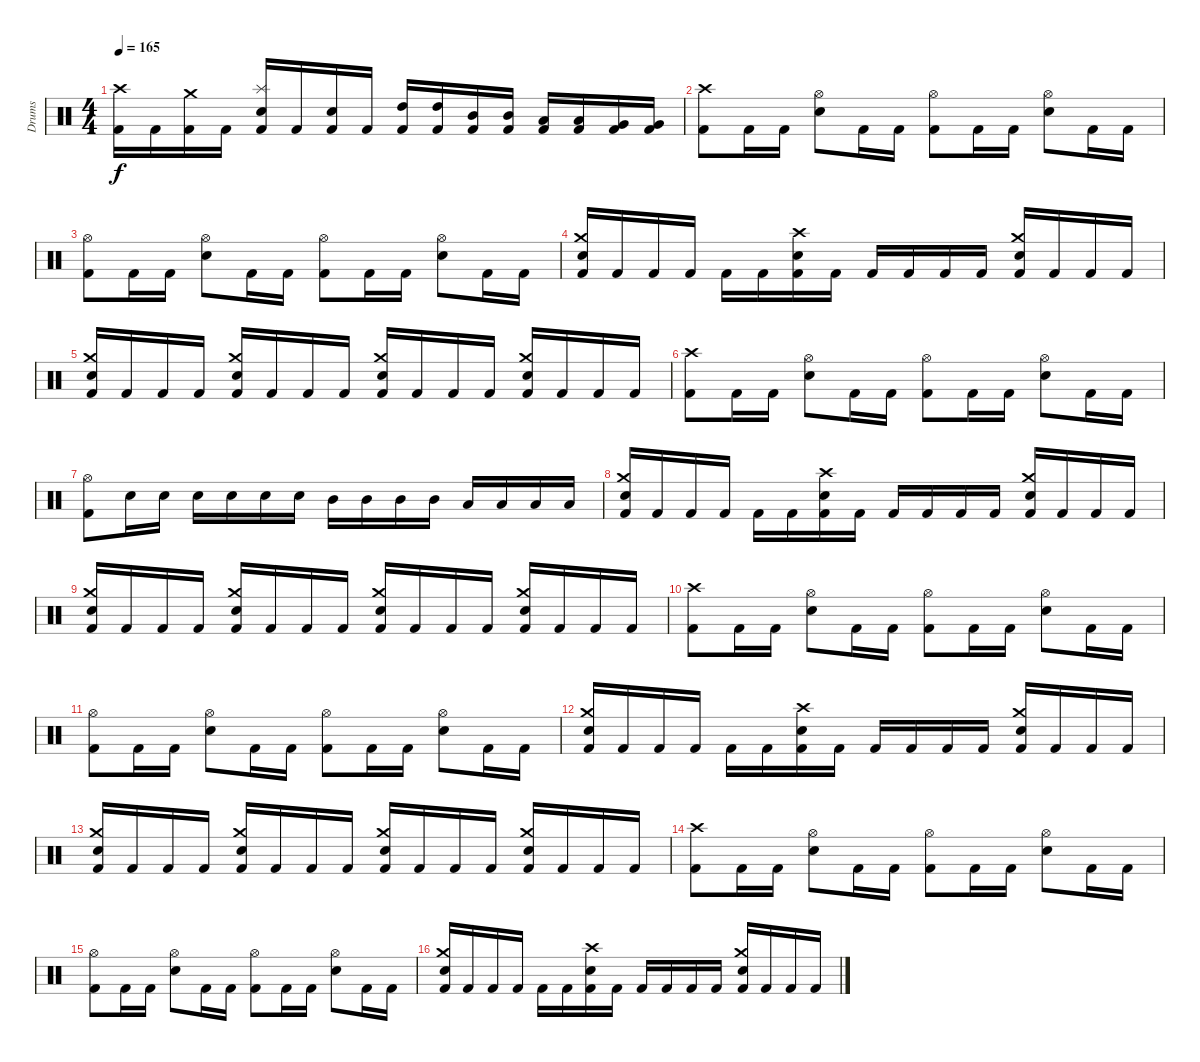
\track ("Drums" "Drums") {instrument percussion}
\staff {score}
\articulation defaults
\ts (4 4)
\tempo 165
\clef neutral
\ks c
("Crash high (hit)" "Kick (hit) 2").16{dy f} "Kick (hit) 2".16 ("Crash medium (hit)" "Kick (hit) 2").16 "Kick (hit) 2".16 ("Splash (hit)" "Electric Snare (hit)" "Kick (hit) 2").16 "Kick (hit) 2".16 ("Electric Snare (hit)" "Kick (hit) 2").16 "Kick (hit) 2".16 ("High Tom (hit)" "Kick (hit) 2").16 ("High Tom (hit)" "Kick (hit) 2").16 ("Mid Tom (hit)" "Kick (hit) 2").16 ("Mid Tom (hit)" "Kick (hit) 2").16 ("Low Tom (hit)" "Kick (hit) 2").16 ("Low Tom (hit)" "Kick (hit) 2").16 ("Very Low Tom (hit)" "Kick (hit) 2").16 ("Very Low Tom (hit)" "Kick (hit) 2").16 |
("Crash high (hit)" "Kick (hit) 2").8 "Kick (hit) 2".16 "Kick (hit) 2".16 ("Hi-Hat (open)" "Electric Snare (hit)").8 "Kick (hit) 2".16 "Kick (hit) 2".16 ("Hi-Hat (open)" "Kick (hit) 2").8 "Kick (hit) 2".16 "Kick (hit) 2".16 ("Hi-Hat (open)" "Electric Snare (hit)").8 "Kick (hit) 2".16 "Kick (hit) 2".16 |
("Hi-Hat (open)" "Kick (hit) 2").8 "Kick (hit) 2".16 "Kick (hit) 2".16 ("Hi-Hat (open)" "Electric Snare (hit)").8 "Kick (hit) 2".16 "Kick (hit) 2".16 ("Hi-Hat (open)" "Kick (hit) 2").8 "Kick (hit) 2".16 "Kick (hit) 2".16 ("Hi-Hat (open)" "Electric Snare (hit)").8 "Kick (hit) 2".16 "Kick (hit) 2".16 |
("Crash medium (hit)" "Electric Snare (hit)" "Kick (hit) 2").16 "Kick (hit) 2".16 "Kick (hit) 2".16 "Kick (hit) 2".16 "Kick (hit) 2".16 "Kick (hit) 2".16 ("Crash high (hit)" "Electric Snare (hit)" "Kick (hit) 2").16 "Kick (hit) 2".16 "Kick (hit) 2".16 "Kick (hit) 2".16 "Kick (hit) 2".16 "Kick (hit) 2".16 ("Crash medium (hit)" "Electric Snare (hit)" "Kick (hit) 2").16 "Kick (hit) 2".16 "Kick (hit) 2".16 "Kick (hit) 2".16 |
("Crash medium (hit)" "Electric Snare (hit)" "Kick (hit) 2").16 "Kick (hit) 2".16 "Kick (hit) 2".16 "Kick (hit) 2".16 ("Crash medium (hit)" "Electric Snare (hit)" "Kick (hit) 2").16 "Kick (hit) 2".16 "Kick (hit) 2".16 "Kick (hit) 2".16 ("Crash medium (hit)" "Electric Snare (hit)" "Kick (hit) 2").16 "Kick (hit) 2".16 "Kick (hit) 2".16 "Kick (hit) 2".16 ("Crash medium (hit)" "Electric Snare (hit)" "Kick (hit) 2").16 "Kick (hit) 2".16 "Kick (hit) 2".16 "Kick (hit) 2".16 |
("Crash high (hit)" "Kick (hit) 2").8 "Kick (hit) 2".16 "Kick (hit) 2".16 ("Hi-Hat (open)" "Electric Snare (hit)").8 "Kick (hit) 2".16 "Kick (hit) 2".16 ("Hi-Hat (open)" "Kick (hit) 2").8 "Kick (hit) 2".16 "Kick (hit) 2".16 ("Hi-Hat (open)" "Electric Snare (hit)").8 "Kick (hit) 2".16 "Kick (hit) 2".16 |
("Hi-Hat (open)" "Kick (hit) 2").8 "Electric Snare (hit)".16 "Electric Snare (hit)".16 "Electric Snare (hit)".16 "Electric Snare (hit)".16 "Electric Snare (hit)".16 "Electric Snare (hit)".16 "Mid Tom (hit)".16 "Mid Tom (hit)".16 "Mid Tom (hit)".16 "Mid Tom (hit)".16 "Low Tom (hit)".16 "Low Tom (hit)".16 "Low Tom (hit)".16 "Low Tom (hit)".16 |
("Crash medium (hit)" "Electric Snare (hit)" "Kick (hit) 2").16 "Kick (hit) 2".16 "Kick (hit) 2".16 "Kick (hit) 2".16 "Kick (hit) 2".16 "Kick (hit) 2".16 ("Crash high (hit)" "Electric Snare (hit)" "Kick (hit) 2").16 "Kick (hit) 2".16 "Kick (hit) 2".16 "Kick (hit) 2".16 "Kick (hit) 2".16 "Kick (hit) 2".16 ("Crash medium (hit)" "Electric Snare (hit)" "Kick (hit) 2").16 "Kick (hit) 2".16 "Kick (hit) 2".16 "Kick (hit) 2".16 |
("Crash medium (hit)" "Electric Snare (hit)" "Kick (hit) 2").16 "Kick (hit) 2".16 "Kick (hit) 2".16 "Kick (hit) 2".16 ("Crash medium (hit)" "Electric Snare (hit)" "Kick (hit) 2").16 "Kick (hit) 2".16 "Kick (hit) 2".16 "Kick (hit) 2".16 ("Crash medium (hit)" "Electric Snare (hit)" "Kick (hit) 2").16 "Kick (hit) 2".16 "Kick (hit) 2".16 "Kick (hit) 2".16 ("Crash medium (hit)" "Electric Snare (hit)" "Kick (hit) 2").16 "Kick (hit) 2".16 "Kick (hit) 2".16 "Kick (hit) 2".16 |
("Crash high (hit)" "Kick (hit) 2").8 "Kick (hit) 2".16 "Kick (hit) 2".16 ("Hi-Hat (open)" "Electric Snare (hit)").8 "Kick (hit) 2".16 "Kick (hit) 2".16 ("Hi-Hat (open)" "Kick (hit) 2").8 "Kick (hit) 2".16 "Kick (hit) 2".16 ("Hi-Hat (open)" "Electric Snare (hit)").8 "Kick (hit) 2".16 "Kick (hit) 2".16 |
("Hi-Hat (open)" "Kick (hit) 2").8 "Kick (hit) 2".16 "Kick (hit) 2".16 ("Hi-Hat (open)" "Electric Snare (hit)").8 "Kick (hit) 2".16 "Kick (hit) 2".16 ("Hi-Hat (open)" "Kick (hit) 2").8 "Kick (hit) 2".16 "Kick (hit) 2".16 ("Hi-Hat (open)" "Electric Snare (hit)").8 "Kick (hit) 2".16 "Kick (hit) 2".16 |
("Crash medium (hit)" "Electric Snare (hit)" "Kick (hit) 2").16 "Kick (hit) 2".16 "Kick (hit) 2".16 "Kick (hit) 2".16 "Kick (hit) 2".16 "Kick (hit) 2".16 ("Crash high (hit)" "Electric Snare (hit)" "Kick (hit) 2").16 "Kick (hit) 2".16 "Kick (hit) 2".16 "Kick (hit) 2".16 "Kick (hit) 2".16 "Kick (hit) 2".16 ("Crash medium (hit)" "Electric Snare (hit)" "Kick (hit) 2").16 "Kick (hit) 2".16 "Kick (hit) 2".16 "Kick (hit) 2".16 |
("Crash medium (hit)" "Electric Snare (hit)" "Kick (hit) 2").16 "Kick (hit) 2".16 "Kick (hit) 2".16 "Kick (hit) 2".16 ("Crash medium (hit)" "Electric Snare (hit)" "Kick (hit) 2").16 "Kick (hit) 2".16 "Kick (hit) 2".16 "Kick (hit) 2".16 ("Crash medium (hit)" "Electric Snare (hit)" "Kick (hit) 2").16 "Kick (hit) 2".16 "Kick (hit) 2".16 "Kick (hit) 2".16 ("Crash medium (hit)" "Electric Snare (hit)" "Kick (hit) 2").16 "Kick (hit) 2".16 "Kick (hit) 2".16 "Kick (hit) 2".16 |
("Crash high (hit)" "Kick (hit) 2").8 "Kick (hit) 2".16 "Kick (hit) 2".16 ("Hi-Hat (open)" "Electric Snare (hit)").8 "Kick (hit) 2".16 "Kick (hit) 2".16 ("Hi-Hat (open)" "Kick (hit) 2").8 "Kick (hit) 2".16 "Kick (hit) 2".16 ("Hi-Hat (open)" "Electric Snare (hit)").8 "Kick (hit) 2".16 "Kick (hit) 2".16 |
("Hi-Hat (open)" "Kick (hit) 2").8 "Kick (hit) 2".16 "Kick (hit) 2".16 ("Hi-Hat (open)" "Electric Snare (hit)").8 "Kick (hit) 2".16 "Kick (hit) 2".16 ("Hi-Hat (open)" "Kick (hit) 2").8 "Kick (hit) 2".16 "Kick (hit) 2".16 ("Hi-Hat (open)" "Electric Snare (hit)").8 "Kick (hit) 2".16 "Kick (hit) 2".16 |
("Crash medium (hit)" "Electric Snare (hit)" "Kick (hit) 2").16 "Kick (hit) 2".16 "Kick (hit) 2".16 "Kick (hit) 2".16 "Kick (hit) 2".16 "Kick (hit) 2".16 ("Crash high (hit)" "Electric Snare (hit)" "Kick (hit) 2").16 "Kick (hit) 2".16 "Kick (hit) 2".16 "Kick (hit) 2".16 "Kick (hit) 2".16 "Kick (hit) 2".16 ("Crash medium (hit)" "Electric Snare (hit)" "Kick (hit) 2").16 "Kick (hit) 2".16 "Kick (hit) 2".16 "Kick (hit) 2".16
